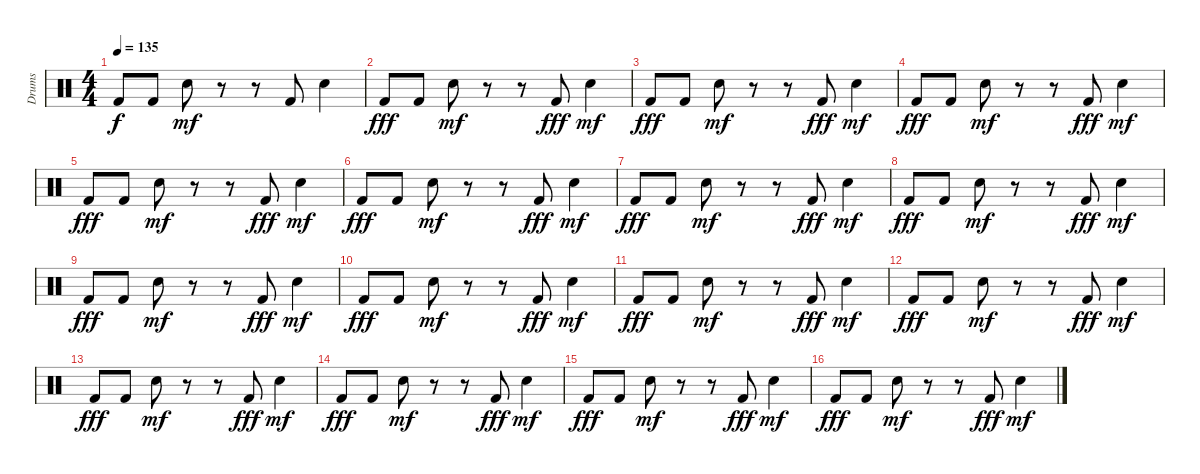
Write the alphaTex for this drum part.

\track ("Drums" "Drums") {instrument percussion}
\staff {score}
\articulation defaults
\ts (4 4)
\tempo 135
\clef neutral
\ks c "Kick (hit) 2".8{dy f} "Kick (hit) 2".8 "Snare (hit) 2".8{dy mf}
r.8 r.8 "Kick (hit) 2".8 "Snare (hit) 2".4 |
"Kick (hit) 2".8{dy fff} "Kick (hit) 2".8 "Snare (hit) 2".8{dy mf} r.8 r.8 "Kick (hit) 2".8{dy fff} "Snare (hit) 2".4{dy mf} |
"Kick (hit) 2".8{dy fff} "Kick (hit) 2".8 "Snare (hit) 2".8{dy mf} r.8 r.8 "Kick (hit) 2".8{dy fff} "Snare (hit) 2".4{dy mf} |
"Kick (hit) 2".8{dy fff} "Kick (hit) 2".8 "Snare (hit) 2".8{dy mf} r.8 r.8 "Kick (hit) 2".8{dy fff} "Snare (hit) 2".4{dy mf} |
"Kick (hit) 2".8{dy fff} "Kick (hit) 2".8 "Snare (hit) 2".8{dy mf} r.8 r.8 "Kick (hit) 2".8{dy fff} "Snare (hit) 2".4{dy mf} |
"Kick (hit) 2".8{dy fff} "Kick (hit) 2".8 "Snare (hit) 2".8{dy mf} r.8 r.8 "Kick (hit) 2".8{dy fff} "Snare (hit) 2".4{dy mf} |
"Kick (hit) 2".8{dy fff} "Kick (hit) 2".8 "Snare (hit) 2".8{dy mf} r.8 r.8 "Kick (hit) 2".8{dy fff} "Snare (hit) 2".4{dy mf} |
"Kick (hit) 2".8{dy fff} "Kick (hit) 2".8 "Snare (hit) 2".8{dy mf} r.8 r.8 "Kick (hit) 2".8{dy fff} "Snare (hit) 2".4{dy mf} |
"Kick (hit) 2".8{dy fff} "Kick (hit) 2".8 "Snare (hit) 2".8{dy mf} r.8 r.8 "Kick (hit) 2".8{dy fff} "Snare (hit) 2".4{dy mf} |
"Kick (hit) 2".8{dy fff} "Kick (hit) 2".8 "Snare (hit) 2".8{dy mf} r.8 r.8 "Kick (hit) 2".8{dy fff} "Snare (hit) 2".4{dy mf} |
"Kick (hit) 2".8{dy fff} "Kick (hit) 2".8 "Snare (hit) 2".8{dy mf} r.8 r.8 "Kick (hit) 2".8{dy fff} "Snare (hit) 2".4{dy mf} |
"Kick (hit) 2".8{dy fff} "Kick (hit) 2".8 "Snare (hit) 2".8{dy mf} r.8 r.8 "Kick (hit) 2".8{dy fff} "Snare (hit) 2".4{dy mf} |
"Kick (hit) 2".8{dy fff} "Kick (hit) 2".8 "Snare (hit) 2".8{dy mf} r.8 r.8 "Kick (hit) 2".8{dy fff} "Snare (hit) 2".4{dy mf} |
"Kick (hit) 2".8{dy fff} "Kick (hit) 2".8 "Snare (hit) 2".8{dy mf} r.8 r.8 "Kick (hit) 2".8{dy fff} "Snare (hit) 2".4{dy mf} |
"Kick (hit) 2".8{dy fff} "Kick (hit) 2".8 "Snare (hit) 2".8{dy mf} r.8 r.8 "Kick (hit) 2".8{dy fff} "Snare (hit) 2".4{dy mf} |
"Kick (hit) 2".8{dy fff} "Kick (hit) 2".8 "Snare (hit) 2".8{dy mf} r.8 r.8 "Kick (hit) 2".8{dy fff} "Snare (hit) 2".4{dy mf}
